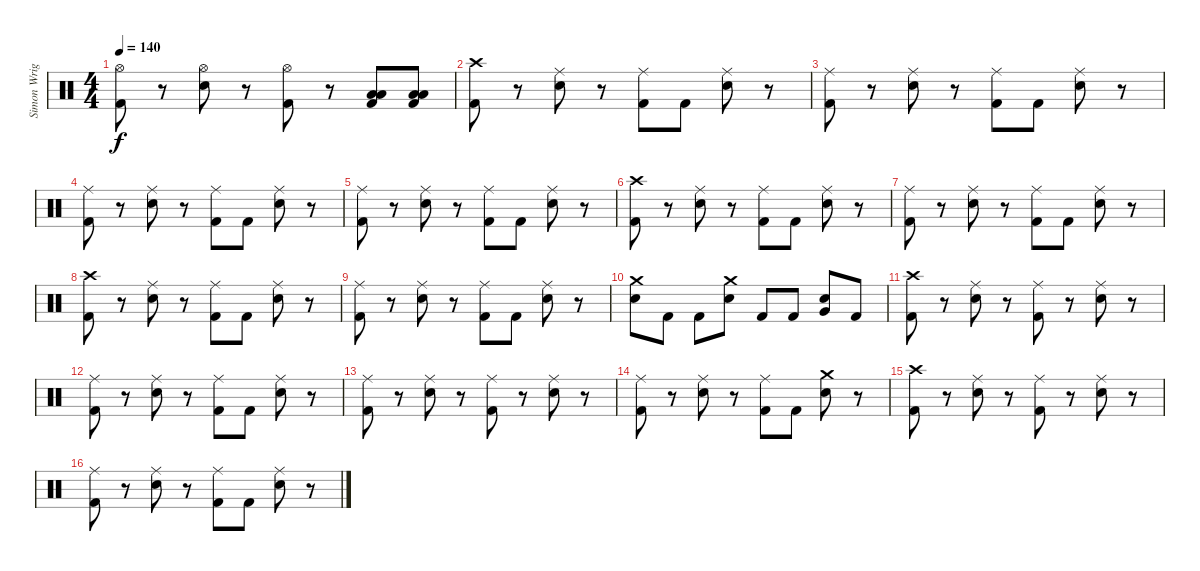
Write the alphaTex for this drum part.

\track ("Simon Wright" "Simon Wrig") {instrument percussion}
\staff {score}
\articulation defaults
\ts (4 4)
\tempo 140
\clef neutral
\ks c
("Hi-Hat (open)" "Kick (hit) 2").8{dy f} r.8 ("Hi-Hat (open)" "Snare (hit) 2").8 r.8 ("Hi-Hat (open)" "Kick (hit) 2").8 r.8 ("Low Tom (hit)" "Low Floor Tom (hit)" "Kick (hit) 2").8 ("Low Tom (hit)" "Low Floor Tom (hit)" "Kick (hit) 2").8 |
("Crash high (hit)" "Kick (hit) 2").8 r.8 ("Ride (middle)" "Snare (hit) 2").8 r.8 ("Ride (middle)" "Kick (hit) 2").8 "Kick (hit) 2".8 ("Ride (middle)" "Snare (hit) 2").8 r.8 |
("Ride (middle)" "Kick (hit) 2").8 r.8 ("Ride (middle)" "Snare (hit) 2").8 r.8 ("Ride (middle)" "Kick (hit) 2").8 "Kick (hit) 2".8 ("Ride (middle)" "Snare (hit) 2").8 r.8 |
("Ride (middle)" "Kick (hit) 2").8 r.8 ("Ride (middle)" "Snare (hit) 2").8 r.8 ("Ride (middle)" "Kick (hit) 2").8 "Kick (hit) 2".8 ("Ride (middle)" "Snare (hit) 2").8 r.8 |
("Ride (middle)" "Kick (hit) 2").8 r.8 ("Ride (middle)" "Snare (hit) 2").8 r.8 ("Ride (middle)" "Kick (hit) 2").8 "Kick (hit) 2".8 ("Ride (middle)" "Snare (hit) 2").8 r.8 |
("Crash high (hit)" "Kick (hit) 2").8 r.8 ("Ride (middle)" "Snare (hit) 2").8 r.8 ("Ride (middle)" "Kick (hit) 2").8 "Kick (hit) 2".8 ("Ride (middle)" "Snare (hit) 2").8 r.8 |
("Ride (middle)" "Kick (hit) 2").8 r.8 ("Ride (middle)" "Snare (hit) 2").8 r.8 ("Ride (middle)" "Kick (hit) 2").8 "Kick (hit) 2".8 ("Ride (middle)" "Snare (hit) 2").8 r.8 |
("Crash high (hit)" "Kick (hit) 2").8 r.8 ("Ride (middle)" "Snare (hit) 2").8 r.8 ("Ride (middle)" "Kick (hit) 2").8 "Kick (hit) 2".8 ("Ride (middle)" "Snare (hit) 2").8 r.8 |
("Ride (middle)" "Kick (hit) 2").8 r.8 ("Ride (middle)" "Snare (hit) 2").8 r.8 ("Ride (middle)" "Kick (hit) 2").8 "Kick (hit) 2".8 ("Ride (middle)" "Snare (hit) 2").8 r.8 |
("Crash medium (hit)" "Snare (hit) 2").8 "Kick (hit) 2".8 "Kick (hit) 2".8 ("Crash medium (hit)" "Snare (hit) 2").8 "Kick (hit) 2".8 "Kick (hit) 2".8 ("Very Low Tom (hit)" "Snare (hit) 2").8 "Kick (hit) 2".8 |
("Crash high (hit)" "Kick (hit) 2").8 r.8 ("Ride (middle)" "Snare (hit) 2").8 r.8 ("Ride (middle)" "Kick (hit) 2").8 r.8 ("Ride (middle)" "Snare (hit) 2").8 r.8 |
("Ride (middle)" "Kick (hit) 2").8 r.8 ("Ride (middle)" "Snare (hit) 2").8 r.8 ("Ride (middle)" "Kick (hit) 2").8 "Kick (hit) 2".8 ("Ride (middle)" "Snare (hit) 2").8 r.8 |
("Ride (middle)" "Kick (hit) 2").8 r.8 ("Ride (middle)" "Snare (hit) 2").8 r.8 ("Ride (middle)" "Kick (hit) 2").8 r.8 ("Ride (middle)" "Snare (hit) 2").8 r.8 |
("Ride (middle)" "Kick (hit) 2").8 r.8 ("Ride (middle)" "Snare (hit) 2").8 r.8 ("Ride (middle)" "Kick (hit) 2").8 "Kick (hit) 2".8 ("Crash medium (hit)" "Snare (hit) 2").8 r.8 |
("Crash high (hit)" "Kick (hit) 2").8 r.8 ("Ride (middle)" "Snare (hit) 2").8 r.8 ("Ride (middle)" "Kick (hit) 2").8 r.8 ("Ride (middle)" "Snare (hit) 2").8 r.8 |
("Ride (middle)" "Kick (hit) 2").8 r.8 ("Ride (middle)" "Snare (hit) 2").8 r.8 ("Ride (middle)" "Kick (hit) 2").8 "Kick (hit) 2".8 ("Ride (middle)" "Snare (hit) 2").8 r.8
